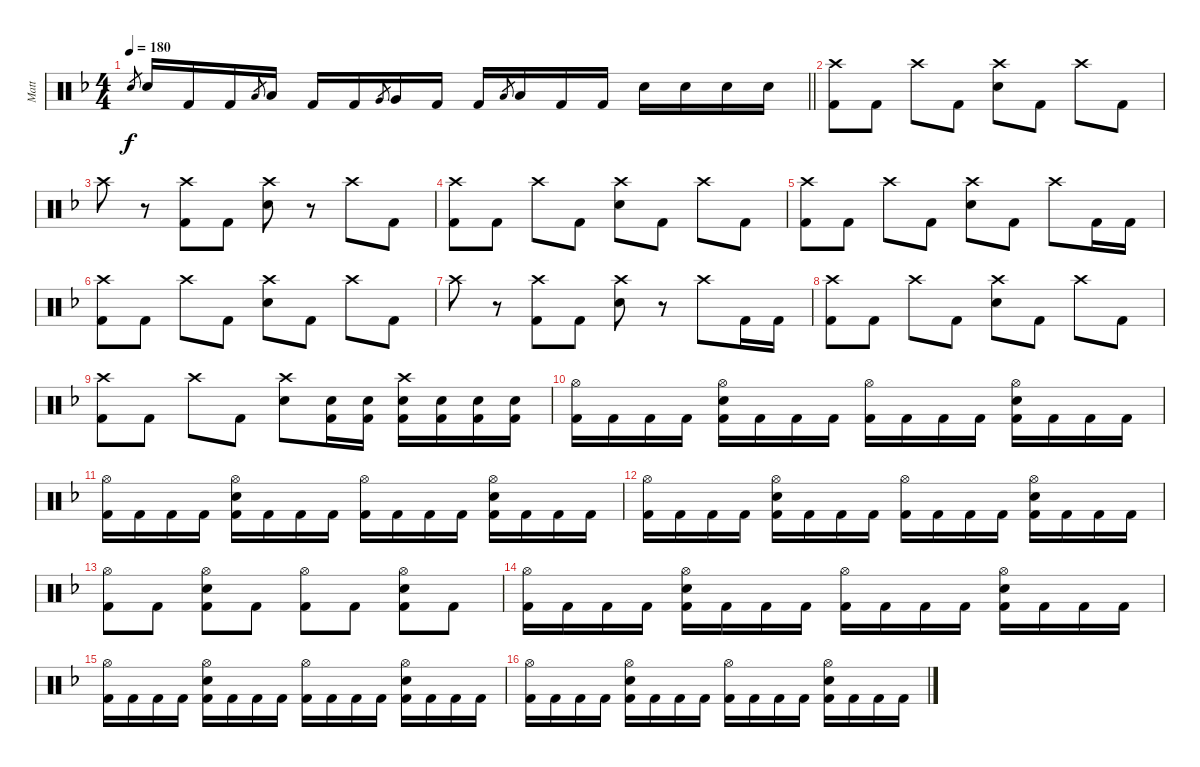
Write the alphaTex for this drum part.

\track ("Matt" "Matt") {instrument percussion}
\staff {score}
\articulation defaults
\ts (4 4)
\tempo 180
\clef neutral
\barLineRight lightlight
\ks f "Electric Snare (hit)".8{gr dy f} "Electric Snare (hit)".16 "Kick (hit) 2".16 "Kick (hit) 2".16 "Low Tom (hit)".8{gr} "Low Tom (hit)".16 "Kick (hit) 2".16 "Kick (hit) 2".16 "Very Low Tom (hit)".8{gr} "Very Low Tom (hit)".16 "Kick (hit) 2".16 "Kick (hit) 2".16 "Low Tom (hit)".8{gr} "Low Tom (hit)".16 "Kick (hit) 2".16 "Kick (hit) 2".16 "Electric Snare (hit)".16 "Electric Snare (hit)".16 "Electric Snare (hit)".16 "Electric Snare (hit)".16
|
("Crash high (hit)" "Kick (hit) 2").8 "Kick (hit) 2".8 "Crash high (hit)".8 "Kick (hit) 2".8 ("Crash high (hit)" "Electric Snare (hit)").8 "Kick (hit) 2".8 "Crash high (hit)".8 "Kick (hit) 2".8 |
"Crash high (hit)".8 r.8 ("Crash high (hit)" "Kick (hit) 2").8 "Kick (hit) 2".8 ("Crash high (hit)" "Electric Snare (hit)").8 r.8 "Crash high (hit)".8 "Kick (hit) 2".8 |
("Crash high (hit)" "Kick (hit) 2").8 "Kick (hit) 2".8 "Crash high (hit)".8 "Kick (hit) 2".8 ("Crash high (hit)" "Electric Snare (hit)").8 "Kick (hit) 2".8 "Crash high (hit)".8 "Kick (hit) 2".8 |
("Crash high (hit)" "Kick (hit) 2").8 "Kick (hit) 2".8 "Crash high (hit)".8 "Kick (hit) 2".8 ("Crash high (hit)" "Electric Snare (hit)").8 "Kick (hit) 2".8 "Crash high (hit)".8 "Kick (hit) 2".16 "Kick (hit) 2".16 |
("Crash high (hit)" "Kick (hit) 2").8 "Kick (hit) 2".8 "Crash high (hit)".8 "Kick (hit) 2".8 ("Crash high (hit)" "Electric Snare (hit)").8 "Kick (hit) 2".8 "Crash high (hit)".8 "Kick (hit) 2".8 |
"Crash high (hit)".8 r.8 ("Crash high (hit)" "Kick (hit) 2").8 "Kick (hit) 2".8 ("Crash high (hit)" "Electric Snare (hit)").8 r.8 "Crash high (hit)".8 "Kick (hit) 2".16 "Kick (hit) 2".16 |
("Crash high (hit)" "Kick (hit) 2").8 "Kick (hit) 2".8 "Crash high (hit)".8 "Kick (hit) 2".8 ("Crash high (hit)" "Electric Snare (hit)").8 "Kick (hit) 2".8 "Crash high (hit)".8 "Kick (hit) 2".8 |
("Crash high (hit)" "Kick (hit) 2").8 "Kick (hit) 2".8 "Crash high (hit)".8 "Kick (hit) 2".8 ("Crash high (hit)" "Electric Snare (hit)").8 ("Electric Snare (hit)" "Kick (hit) 2").16 ("Electric Snare (hit)" "Kick (hit) 2").16 ("Crash high (hit)" "Electric Snare (hit)" "Kick (hit) 2").16 ("Electric Snare (hit)" "Kick (hit) 2").16 ("Electric Snare (hit)" "Kick (hit) 2").16 ("Electric Snare (hit)" "Kick (hit) 2").16 |
("Hi-Hat (open)" "Kick (hit) 2").16 "Kick (hit) 2".16 "Kick (hit) 2".16 "Kick (hit) 2".16 ("Hi-Hat (open)" "Electric Snare (hit)" "Kick (hit) 2").16 "Kick (hit) 2".16 "Kick (hit) 2".16 "Kick (hit) 2".16 ("Hi-Hat (open)" "Kick (hit) 2").16 "Kick (hit) 2".16 "Kick (hit) 2".16 "Kick (hit) 2".16 ("Hi-Hat (open)" "Electric Snare (hit)" "Kick (hit) 2").16 "Kick (hit) 2".16 "Kick (hit) 2".16 "Kick (hit) 2".16 |
("Hi-Hat (open)" "Kick (hit) 2").16 "Kick (hit) 2".16 "Kick (hit) 2".16 "Kick (hit) 2".16 ("Hi-Hat (open)" "Electric Snare (hit)" "Kick (hit) 2").16 "Kick (hit) 2".16 "Kick (hit) 2".16 "Kick (hit) 2".16 ("Hi-Hat (open)" "Kick (hit) 2").16 "Kick (hit) 2".16 "Kick (hit) 2".16 "Kick (hit) 2".16 ("Hi-Hat (open)" "Electric Snare (hit)" "Kick (hit) 2").16 "Kick (hit) 2".16 "Kick (hit) 2".16 "Kick (hit) 2".16 |
("Hi-Hat (open)" "Kick (hit) 2").16 "Kick (hit) 2".16 "Kick (hit) 2".16 "Kick (hit) 2".16 ("Hi-Hat (open)" "Electric Snare (hit)" "Kick (hit) 2").16 "Kick (hit) 2".16 "Kick (hit) 2".16 "Kick (hit) 2".16 ("Hi-Hat (open)" "Kick (hit) 2").16 "Kick (hit) 2".16 "Kick (hit) 2".16 "Kick (hit) 2".16 ("Hi-Hat (open)" "Electric Snare (hit)" "Kick (hit) 2").16 "Kick (hit) 2".16 "Kick (hit) 2".16 "Kick (hit) 2".16 |
("Hi-Hat (open)" "Kick (hit) 2").8 "Kick (hit) 2".8 ("Hi-Hat (open)" "Electric Snare (hit)" "Kick (hit) 2").8 "Kick (hit) 2".8 ("Hi-Hat (open)" "Kick (hit) 2").8 "Kick (hit) 2".8 ("Hi-Hat (open)" "Electric Snare (hit)" "Kick (hit) 2").8 "Kick (hit) 2".8 |
("Hi-Hat (open)" "Kick (hit) 2").16 "Kick (hit) 2".16 "Kick (hit) 2".16 "Kick (hit) 2".16 ("Hi-Hat (open)" "Electric Snare (hit)" "Kick (hit) 2").16 "Kick (hit) 2".16 "Kick (hit) 2".16 "Kick (hit) 2".16 ("Hi-Hat (open)" "Kick (hit) 2").16 "Kick (hit) 2".16 "Kick (hit) 2".16 "Kick (hit) 2".16 ("Hi-Hat (open)" "Electric Snare (hit)" "Kick (hit) 2").16 "Kick (hit) 2".16 "Kick (hit) 2".16 "Kick (hit) 2".16 |
("Hi-Hat (open)" "Kick (hit) 2").16 "Kick (hit) 2".16 "Kick (hit) 2".16 "Kick (hit) 2".16 ("Hi-Hat (open)" "Electric Snare (hit)" "Kick (hit) 2").16 "Kick (hit) 2".16 "Kick (hit) 2".16 "Kick (hit) 2".16 ("Hi-Hat (open)" "Kick (hit) 2").16 "Kick (hit) 2".16 "Kick (hit) 2".16 "Kick (hit) 2".16 ("Hi-Hat (open)" "Electric Snare (hit)" "Kick (hit) 2").16 "Kick (hit) 2".16 "Kick (hit) 2".16 "Kick (hit) 2".16 |
("Hi-Hat (open)" "Kick (hit) 2").16 "Kick (hit) 2".16 "Kick (hit) 2".16 "Kick (hit) 2".16 ("Hi-Hat (open)" "Electric Snare (hit)" "Kick (hit) 2").16 "Kick (hit) 2".16 "Kick (hit) 2".16 "Kick (hit) 2".16 ("Hi-Hat (open)" "Kick (hit) 2").16 "Kick (hit) 2".16 "Kick (hit) 2".16 "Kick (hit) 2".16 ("Hi-Hat (open)" "Electric Snare (hit)" "Kick (hit) 2").16 "Kick (hit) 2".16 "Kick (hit) 2".16 "Kick (hit) 2".16
